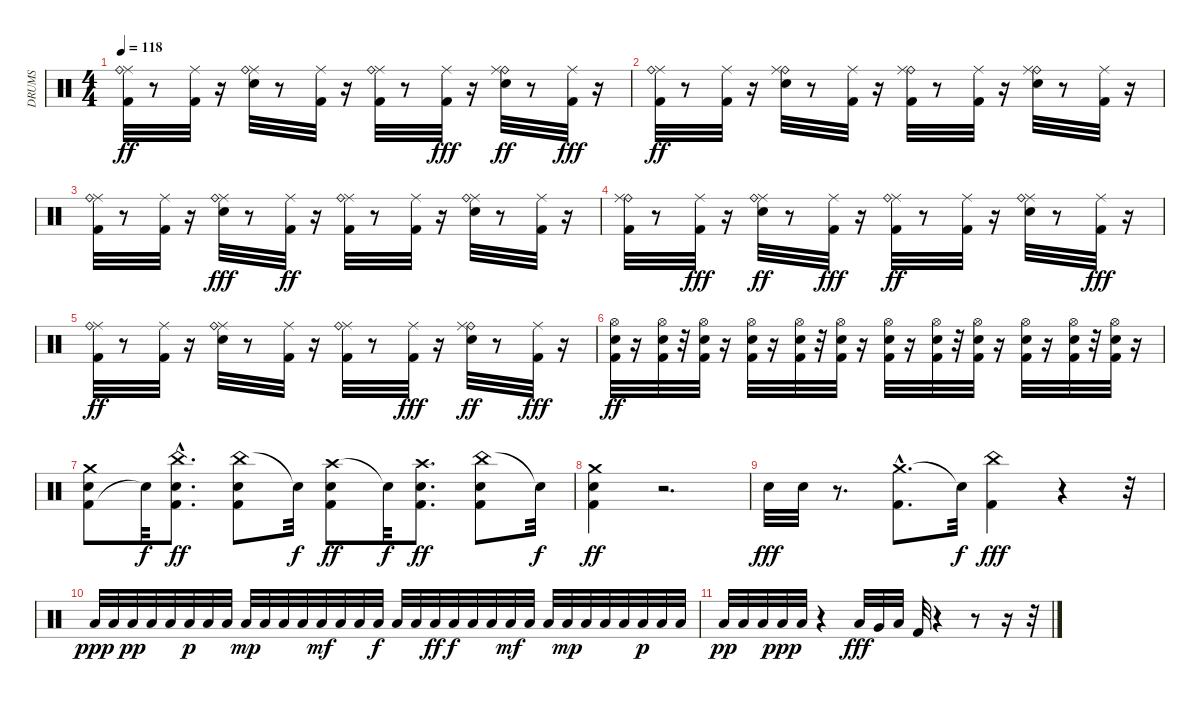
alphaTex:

\track ("DRUMS" "DRUMS") {instrument percussion}
\staff {score}
\articulation defaults
\ts (4 4)
\tempo 118
\clef neutral
\ks c
("Kick (hit) 2" "Ride (middle)" "Ride (bell)").32{dy ff} r.8 ("Kick (hit) 2" "Ride (middle)").32 r.16 ("Snare (hit) 2" "Ride (middle)" "Ride (bell)").32 r.8 ("Kick (hit) 2" "Ride (middle)").32 r.16 ("Kick (hit) 2" "Ride (middle)" "Ride (bell)").32 r.8 ("Ride (middle)" "Kick (hit) 2").32{dy fff} r.16 ("Ride (bell)" "Snare (hit) 2" "Ride (middle)").32{dy ff} r.8 ("Ride (middle)" "Kick (hit) 2").32{dy fff} r.16 |
("Kick (hit) 2" "Ride (middle)" "Ride (bell)").32{dy ff} r.8 ("Kick (hit) 2" "Ride (middle)").32 r.16 ("Ride (bell)" "Snare (hit) 2" "Ride (middle)").32 r.8 ("Kick (hit) 2" "Ride (middle)").32 r.16 ("Ride (bell)" "Kick (hit) 2" "Ride (middle)").32 r.8 ("Kick (hit) 2" "Ride (middle)").32 r.16 ("Ride (bell)" "Snare (hit) 2" "Ride (middle)").32 r.8 ("Kick (hit) 2" "Ride (middle)").32 r.16 |
("Kick (hit) 2" "Ride (middle)" "Ride (bell)").32 r.8 ("Kick (hit) 2" "Ride (middle)").32 r.16 ("Ride (middle)" "Snare (hit) 2" "Ride (bell)").32{dy fff} r.8 ("Kick (hit) 2" "Ride (middle)").32{dy ff} r.16 ("Kick (hit) 2" "Ride (middle)" "Ride (bell)").32 r.8 ("Kick (hit) 2" "Ride (middle)").32 r.16 ("Snare (hit) 2" "Ride (middle)" "Ride (bell)").32 r.8 ("Kick (hit) 2" "Ride (middle)").32 r.16 |
("Kick (hit) 2" "Ride (bell)" "Ride (middle)").32 r.8 ("Ride (middle)" "Kick (hit) 2").32{dy fff} r.16 ("Snare (hit) 2" "Ride (middle)" "Ride (bell)").32{dy ff} r.8 ("Ride (middle)" "Kick (hit) 2").32{dy fff} r.16 ("Kick (hit) 2" "Ride (middle)" "Ride (bell)").32{dy ff} r.8 ("Kick (hit) 2" "Ride (middle)").32 r.16 ("Snare (hit) 2" "Ride (middle)" "Ride (bell)").32 r.8 ("Ride (middle)" "Kick (hit) 2").32{dy fff} r.16 |
("Kick (hit) 2" "Ride (middle)" "Ride (bell)").32{dy ff} r.8 ("Kick (hit) 2" "Ride (middle)").32 r.16 ("Snare (hit) 2" "Ride (middle)" "Ride (bell)").32 r.8 ("Kick (hit) 2" "Ride (middle)").32 r.16 ("Kick (hit) 2" "Ride (middle)" "Ride (bell)").32 r.8 ("Ride (middle)" "Kick (hit) 2").32{dy fff} r.16 ("Ride (bell)" "Snare (hit) 2" "Ride (middle)").32{dy ff} r.8 ("Ride (middle)" "Kick (hit) 2").32{dy fff} r.16 |
("Hi-Hat (open)" "Kick (hit) 2" "Snare (hit) 2").32{dy ff} r.16 ("Hi-Hat (open)" "Kick (hit) 2" "Snare (hit) 2").32 r.32 ("Hi-Hat (open)" "Kick (hit) 2" "Snare (hit) 2").32 r.16 ("Hi-Hat (open)" "Kick (hit) 2" "Snare (hit) 2").32 r.16 ("Hi-Hat (open)" "Kick (hit) 2" "Snare (hit) 2").32 r.32 ("Hi-Hat (open)" "Kick (hit) 2" "Snare (hit) 2").32 r.16 ("Hi-Hat (open)" "Kick (hit) 2" "Snare (hit) 2").32 r.16 ("Hi-Hat (open)" "Kick (hit) 2" "Snare (hit) 2").32 r.32 ("Hi-Hat (open)" "Kick (hit) 2" "Snare (hit) 2").32 r.16 ("Hi-Hat (open)" "Kick (hit) 2" "Snare (hit) 2").32 r.16 ("Hi-Hat (open)" "Kick (hit) 2" "Snare (hit) 2").32 r.32 ("Hi-Hat (open)" "Kick (hit) 2" "Snare (hit) 2").32 r.16 |
("Kick (hit) 2" "Snare (hit) 2" "Crash medium (hit)").8 "Snare (hit)"{t}.32{dy f} ("China (hit)"{hac} "Kick (hit) 2" "Snare (hit) 2").8{d dy ff} ("China (hit)" "Kick (hit) 2" "Snare (hit) 2").8 "Snare (hit)"{t}.32{dy f} ("Crash high (hit)" "Kick (hit) 2" "Snare (hit) 2").8{dy ff} "Snare (hit)"{t}.32{dy f} ("Crash high (hit)" "Kick (hit) 2" "Snare (hit) 2").8{d dy ff} ("China (hit)" "Kick (hit) 2" "Snare (hit) 2").8 "Snare (hit)"{t}.32{dy f} |
("Crash medium (hit)" "Kick (hit) 2" "Snare (hit) 2").4{dy ff} r.2{d} |
"Snare (hit) 2".32{dy fff} "Snare (hit) 2".32 r.8{d} ("Crash medium (hit)"{hac} "Kick (hit) 2").8{d} "Snare (hit)"{t}.32{dy f} ("China (hit)" "Kick (hit) 2").4{dy fff} r.4 r.32 |
"Low Floor Tom (hit)".32{dy ppp} "Low Floor Tom (hit)".32 "Low Floor Tom (hit)".32{dy pp} "Low Floor Tom (hit)".32 "Low Floor Tom (hit)".32 "Low Floor Tom (hit)".32{dy p} "Low Floor Tom (hit)".32 "Low Floor Tom (hit)".32 "Low Floor Tom (hit)".32{dy mp} "Low Floor Tom (hit)".32 "Low Floor Tom (hit)".32 "Low Floor Tom (hit)".32 "Low Floor Tom (hit)".32{dy mf} "Low Floor Tom (hit)".32 "Low Floor Tom (hit)".32 "Low Floor Tom (hit)".32{dy f} "Low Floor Tom (hit)".32 "Low Floor Tom (hit)".32 "Low Floor Tom (hit)".32{dy ff} "Low Floor Tom (hit)".32{dy f} "Low Floor Tom (hit)".32 "Low Floor Tom (hit)".32 "Low Floor Tom (hit)".32{dy mf} "Low Floor Tom (hit)".32 "Low Floor Tom (hit)".32 "Low Floor Tom (hit)".32{dy mp} "Low Floor Tom (hit)".32 "Low Floor Tom (hit)".32 "Low Floor Tom (hit)".32 "Low Floor Tom (hit)".32{dy p} "Low Floor Tom (hit)".32 "Low Floor Tom (hit)".32 |
"Low Floor Tom (hit)".32{dy pp} "Low Floor Tom (hit)".32 "Low Floor Tom (hit)".32 "Low Floor Tom (hit)".32{dy ppp} "Low Floor Tom (hit)".32 r.4 "Low Tom (hit)".32{dy fff} "Very Low Tom (hit)".32 "Low Floor Tom (hit)".32 "Kick (hit) 2".32 r.4 r.8 r.16 r.32
